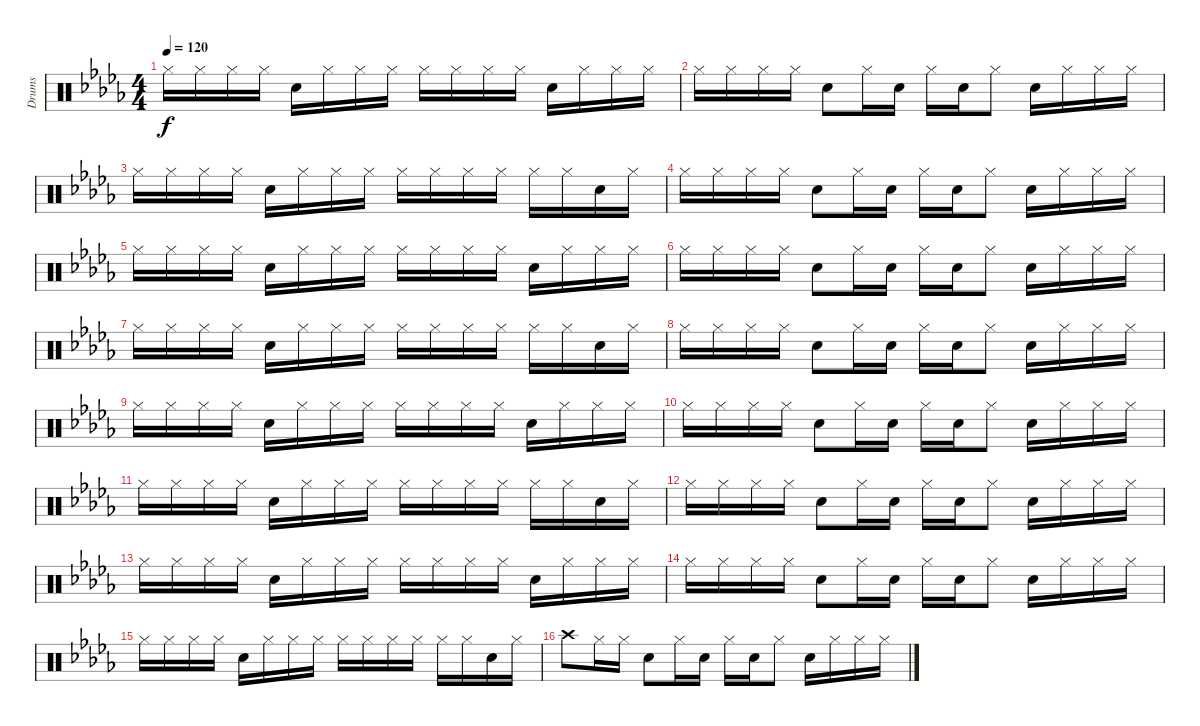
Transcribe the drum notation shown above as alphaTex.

\track ("Drums" "Drums") {instrument percussion}
\staff {score}
\articulation defaults
\ts (4 4)
\tempo 120
\clef neutral
\ks db "Hi-Hat (closed)".16{dy f} "Hi-Hat (closed)".16 "Hi-Hat (closed)".16 "Hi-Hat (closed)".16 "Snare (hit) 2".16 "Hi-Hat (closed)".16 "Hi-Hat (closed)".16 "Hi-Hat (closed)".16 "Hi-Hat (closed)".16 "Hi-Hat (closed)".16 "Hi-Hat (closed)".16 "Hi-Hat (closed)".16 "Snare (hit) 2".16 "Hi-Hat (closed)".16 "Hi-Hat (closed)".16 "Hi-Hat (closed)".16
|
"Hi-Hat (closed)".16 "Hi-Hat (closed)".16 "Hi-Hat (closed)".16 "Hi-Hat (closed)".16 "Snare (hit) 2".8 "Hi-Hat (closed)".16 "Snare (hit) 2".16 "Hi-Hat (closed)".16 "Snare (hit) 2".16 "Hi-Hat (closed)".8 "Snare (hit) 2".16 "Hi-Hat (closed)".16 "Hi-Hat (closed)".16 "Hi-Hat (closed)".16 |
"Hi-Hat (closed)".16 "Hi-Hat (closed)".16 "Hi-Hat (closed)".16 "Hi-Hat (closed)".16 "Snare (hit) 2".16 "Hi-Hat (closed)".16 "Hi-Hat (closed)".16 "Hi-Hat (closed)".16 "Hi-Hat (closed)".16 "Hi-Hat (closed)".16 "Hi-Hat (closed)".16 "Hi-Hat (closed)".16 "Hi-Hat (closed)".16 "Hi-Hat (closed)".16 "Snare (hit) 2".16 "Hi-Hat (closed)".16 |
"Hi-Hat (closed)".16 "Hi-Hat (closed)".16 "Hi-Hat (closed)".16 "Hi-Hat (closed)".16 "Snare (hit) 2".8 "Hi-Hat (closed)".16 "Snare (hit) 2".16 "Hi-Hat (closed)".16 "Snare (hit) 2".16 "Hi-Hat (closed)".8 "Snare (hit) 2".16 "Hi-Hat (closed)".16 "Hi-Hat (closed)".16 "Hi-Hat (closed)".16 |
"Hi-Hat (closed)".16 "Hi-Hat (closed)".16 "Hi-Hat (closed)".16 "Hi-Hat (closed)".16 "Snare (hit) 2".16 "Hi-Hat (closed)".16 "Hi-Hat (closed)".16 "Hi-Hat (closed)".16 "Hi-Hat (closed)".16 "Hi-Hat (closed)".16 "Hi-Hat (closed)".16 "Hi-Hat (closed)".16 "Snare (hit) 2".16 "Hi-Hat (closed)".16 "Hi-Hat (closed)".16 "Hi-Hat (closed)".16 |
"Hi-Hat (closed)".16 "Hi-Hat (closed)".16 "Hi-Hat (closed)".16 "Hi-Hat (closed)".16 "Snare (hit) 2".8 "Hi-Hat (closed)".16 "Snare (hit) 2".16 "Hi-Hat (closed)".16 "Snare (hit) 2".16 "Hi-Hat (closed)".8 "Snare (hit) 2".16 "Hi-Hat (closed)".16 "Hi-Hat (closed)".16 "Hi-Hat (closed)".16 |
"Hi-Hat (closed)".16 "Hi-Hat (closed)".16 "Hi-Hat (closed)".16 "Hi-Hat (closed)".16 "Snare (hit) 2".16 "Hi-Hat (closed)".16 "Hi-Hat (closed)".16 "Hi-Hat (closed)".16 "Hi-Hat (closed)".16 "Hi-Hat (closed)".16 "Hi-Hat (closed)".16 "Hi-Hat (closed)".16 "Hi-Hat (closed)".16 "Hi-Hat (closed)".16 "Snare (hit) 2".16 "Hi-Hat (closed)".16 |
"Hi-Hat (closed)".16 "Hi-Hat (closed)".16 "Hi-Hat (closed)".16 "Hi-Hat (closed)".16 "Snare (hit) 2".8 "Hi-Hat (closed)".16 "Snare (hit) 2".16 "Hi-Hat (closed)".16 "Snare (hit) 2".16 "Hi-Hat (closed)".8 "Snare (hit) 2".16 "Hi-Hat (closed)".16 "Hi-Hat (closed)".16 "Hi-Hat (closed)".16 |
"Hi-Hat (closed)".16 "Hi-Hat (closed)".16 "Hi-Hat (closed)".16 "Hi-Hat (closed)".16 "Snare (hit) 2".16 "Hi-Hat (closed)".16 "Hi-Hat (closed)".16 "Hi-Hat (closed)".16 "Hi-Hat (closed)".16 "Hi-Hat (closed)".16 "Hi-Hat (closed)".16 "Hi-Hat (closed)".16 "Snare (hit) 2".16 "Hi-Hat (closed)".16 "Hi-Hat (closed)".16 "Hi-Hat (closed)".16 |
"Hi-Hat (closed)".16 "Hi-Hat (closed)".16 "Hi-Hat (closed)".16 "Hi-Hat (closed)".16 "Snare (hit) 2".8 "Hi-Hat (closed)".16 "Snare (hit) 2".16 "Hi-Hat (closed)".16 "Snare (hit) 2".16 "Hi-Hat (closed)".8 "Snare (hit) 2".16 "Hi-Hat (closed)".16 "Hi-Hat (closed)".16 "Hi-Hat (closed)".16 |
"Hi-Hat (closed)".16 "Hi-Hat (closed)".16 "Hi-Hat (closed)".16 "Hi-Hat (closed)".16 "Snare (hit) 2".16 "Hi-Hat (closed)".16 "Hi-Hat (closed)".16 "Hi-Hat (closed)".16 "Hi-Hat (closed)".16 "Hi-Hat (closed)".16 "Hi-Hat (closed)".16 "Hi-Hat (closed)".16 "Hi-Hat (closed)".16 "Hi-Hat (closed)".16 "Snare (hit) 2".16 "Hi-Hat (closed)".16 |
"Hi-Hat (closed)".16 "Hi-Hat (closed)".16 "Hi-Hat (closed)".16 "Hi-Hat (closed)".16 "Snare (hit) 2".8 "Hi-Hat (closed)".16 "Snare (hit) 2".16 "Hi-Hat (closed)".16 "Snare (hit) 2".16 "Hi-Hat (closed)".8 "Snare (hit) 2".16 "Hi-Hat (closed)".16 "Hi-Hat (closed)".16 "Hi-Hat (closed)".16 |
"Hi-Hat (closed)".16 "Hi-Hat (closed)".16 "Hi-Hat (closed)".16 "Hi-Hat (closed)".16 "Snare (hit) 2".16 "Hi-Hat (closed)".16 "Hi-Hat (closed)".16 "Hi-Hat (closed)".16 "Hi-Hat (closed)".16 "Hi-Hat (closed)".16 "Hi-Hat (closed)".16 "Hi-Hat (closed)".16 "Snare (hit) 2".16 "Hi-Hat (closed)".16 "Hi-Hat (closed)".16 "Hi-Hat (closed)".16 |
"Hi-Hat (closed)".16 "Hi-Hat (closed)".16 "Hi-Hat (closed)".16 "Hi-Hat (closed)".16 "Snare (hit) 2".8 "Hi-Hat (closed)".16 "Snare (hit) 2".16 "Hi-Hat (closed)".16 "Snare (hit) 2".16 "Hi-Hat (closed)".8 "Snare (hit) 2".16 "Hi-Hat (closed)".16 "Hi-Hat (closed)".16 "Hi-Hat (closed)".16 |
"Hi-Hat (closed)".16 "Hi-Hat (closed)".16 "Hi-Hat (closed)".16 "Hi-Hat (closed)".16 "Snare (hit) 2".16 "Hi-Hat (closed)".16 "Hi-Hat (closed)".16 "Hi-Hat (closed)".16 "Hi-Hat (closed)".16 "Hi-Hat (closed)".16 "Hi-Hat (closed)".16 "Hi-Hat (closed)".16 "Hi-Hat (closed)".16 "Hi-Hat (closed)".16 "Snare (hit) 2".16 "Hi-Hat (closed)".16 |
"Crash high (hit)".8 "Hi-Hat (closed)".16 "Hi-Hat (closed)".16 "Snare (hit) 2".8 "Hi-Hat (closed)".16 "Snare (hit) 2".16 "Hi-Hat (closed)".16 "Snare (hit) 2".16 "Hi-Hat (closed)".8 "Snare (hit) 2".16 "Hi-Hat (closed)".16 "Hi-Hat (closed)".16 "Hi-Hat (closed)".16
